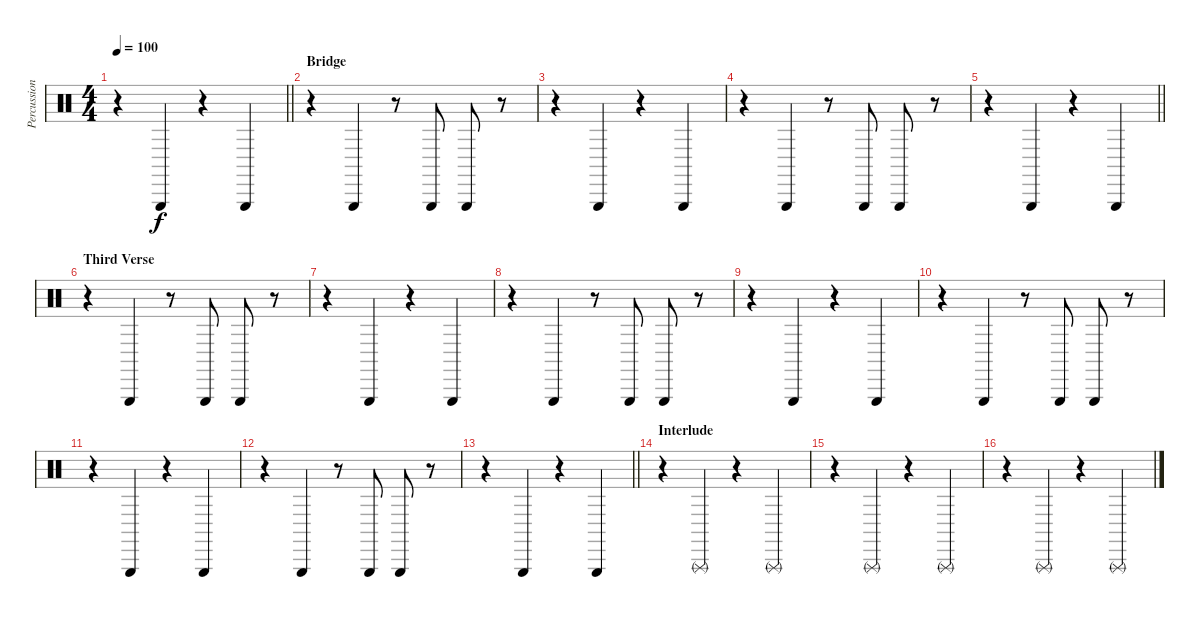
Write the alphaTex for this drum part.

\track ("Percussion - Joe Plummer" "Percussion") {instrument percussion}
\staff {score}
\articulation defaults
\ts (4 4)
\tempo 100
\clef neutral
\barLineRight lightlight
\ks c
r.4{dy f} "Triangle (hit)".4 r.4 "Triangle (hit)".4 |
\section ("" "Bridge")
r.4 "Triangle (hit)".4 r.8 "Triangle (hit)".8 "Triangle (hit)".8 r.8 |
r.4 "Triangle (hit)".4 r.4 "Triangle (hit)".4 |
r.4 "Triangle (hit)".4 r.8 "Triangle (hit)".8 "Triangle (hit)".8 r.8 |
\barLineRight lightlight
r.4 "Triangle (hit)".4 r.4 "Triangle (hit)".4 |
\section ("" "Third Verse")
r.4 "Triangle (hit)".4 r.8 "Triangle (hit)".8 "Triangle (hit)".8 r.8 |
r.4 "Triangle (hit)".4 r.4 "Triangle (hit)".4 |
r.4 "Triangle (hit)".4 r.8 "Triangle (hit)".8 "Triangle (hit)".8 r.8 |
r.4 "Triangle (hit)".4 r.4 "Triangle (hit)".4 |
r.4 "Triangle (hit)".4 r.8 "Triangle (hit)".8 "Triangle (hit)".8 r.8 |
r.4 "Triangle (hit)".4 r.4 "Triangle (hit)".4 |
r.4 "Triangle (hit)".4 r.8 "Triangle (hit)".8 "Triangle (hit)".8 r.8 |
\barLineRight lightlight
r.4 "Triangle (hit)".4 r.4 "Triangle (hit)".4 |
\section ("" "Interlude")
r.4 "Triangle (rnute)".4 r.4 "Triangle (rnute)".4 |
r.4 "Triangle (rnute)".4 r.4 "Triangle (rnute)".4 |
r.4 "Triangle (rnute)".4 r.4 "Triangle (rnute)".4
